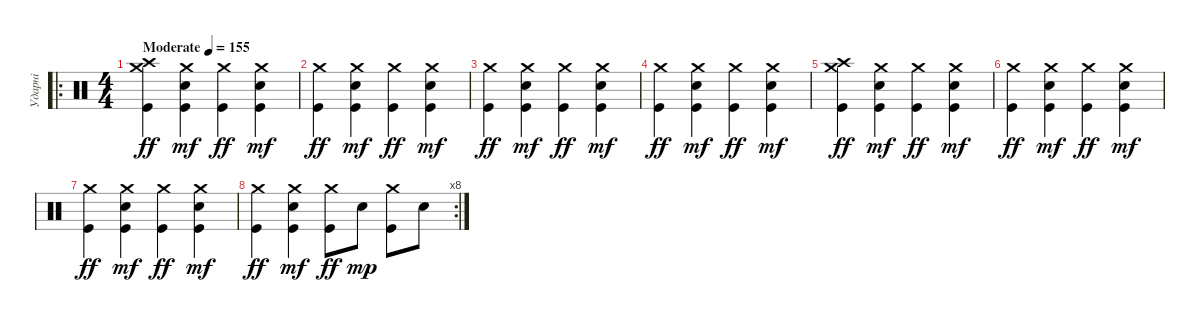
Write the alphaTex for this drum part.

\track ("Ударні" "Ударні") {instrument percussion}
\staff {score}
\articulation defaults
\ro
\ts (4 4)
\tempo (155 "Moderate")
\clef neutral
\ks c
("Crash medium (hit)" "Crash high (hit)" "Kick (hit)").4{dy ff} ("Crash medium (hit)" "Snare (hit) 2" "Kick (hit)").4{dy mf} ("Crash medium (hit)" "Kick (hit)").4{dy ff} ("Crash medium (hit)" "Snare (hit) 2" "Kick (hit)").4{dy mf} |
("Crash medium (hit)" "Kick (hit)").4{dy ff} ("Crash medium (hit)" "Snare (hit) 2" "Kick (hit)").4{dy mf} ("Crash medium (hit)" "Kick (hit)").4{dy ff} ("Crash medium (hit)" "Snare (hit) 2" "Kick (hit)").4{dy mf} |
("Crash medium (hit)" "Kick (hit)").4{dy ff} ("Crash medium (hit)" "Snare (hit) 2" "Kick (hit)").4{dy mf} ("Crash medium (hit)" "Kick (hit)").4{dy ff} ("Crash medium (hit)" "Snare (hit) 2" "Kick (hit)").4{dy mf} |
("Crash medium (hit)" "Kick (hit)").4{dy ff} ("Crash medium (hit)" "Snare (hit) 2" "Kick (hit)").4{dy mf} ("Crash medium (hit)" "Kick (hit)").4{dy ff} ("Crash medium (hit)" "Snare (hit) 2" "Kick (hit)").4{dy mf} |
("Crash medium (hit)" "Crash high (hit)" "Kick (hit)").4{dy ff} ("Crash medium (hit)" "Snare (hit) 2" "Kick (hit)").4{dy mf} ("Crash medium (hit)" "Kick (hit)").4{dy ff} ("Crash medium (hit)" "Snare (hit) 2" "Kick (hit)").4{dy mf} |
("Crash medium (hit)" "Kick (hit)").4{dy ff} ("Crash medium (hit)" "Snare (hit) 2" "Kick (hit)").4{dy mf} ("Crash medium (hit)" "Kick (hit)").4{dy ff} ("Crash medium (hit)" "Snare (hit) 2" "Kick (hit)").4{dy mf} |
("Crash medium (hit)" "Kick (hit)").4{dy ff} ("Crash medium (hit)" "Snare (hit) 2" "Kick (hit)").4{dy mf} ("Crash medium (hit)" "Kick (hit)").4{dy ff} ("Crash medium (hit)" "Snare (hit) 2" "Kick (hit)").4{dy mf} |
\rc 8
("Crash medium (hit)" "Kick (hit)").4{dy ff} ("Crash medium (hit)" "Snare (hit) 2" "Kick (hit)").4{dy mf} ("Crash medium (hit)" "Kick (hit)").8{dy ff} "Snare (hit) 2".8{dy mp} ("Crash medium (hit)" "Kick (hit)").8 "Snare (hit) 2".8
